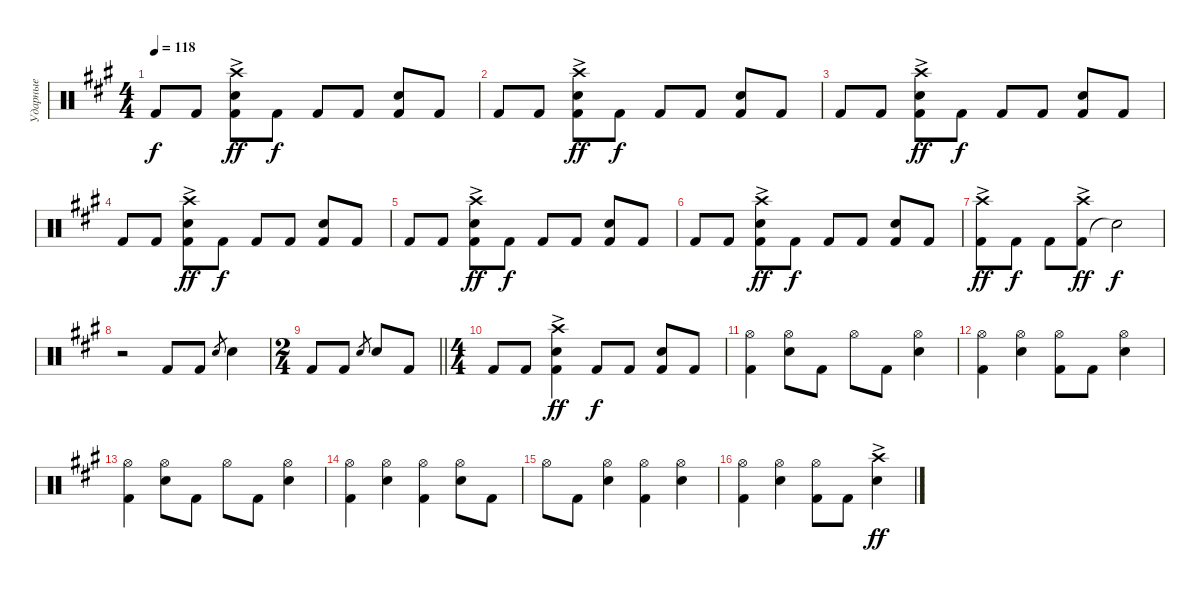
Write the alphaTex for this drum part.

\track ("Ударные" "Ударные") {instrument percussion}
\staff {score}
\articulation defaults
\ts (4 4)
\tempo 118
\clef neutral
\ks a "Kick (hit) 2".8{dy f} "Kick (hit) 2".8
("Kick (hit) 2" "Snare (hit) 2" "Crash high (hit)"{ac}).8{dy ff} "Kick (hit) 2".8{dy f} "Kick (hit) 2".8 "Kick (hit) 2".8 ("Kick (hit) 2" "Snare (hit) 2").8 "Kick (hit) 2".8 |
"Kick (hit) 2".8 "Kick (hit) 2".8 ("Kick (hit) 2" "Snare (hit) 2" "Crash high (hit)"{ac}).8{dy ff} "Kick (hit) 2".8{dy f} "Kick (hit) 2".8 "Kick (hit) 2".8 ("Kick (hit) 2" "Snare (hit) 2").8 "Kick (hit) 2".8 |
"Kick (hit) 2".8 "Kick (hit) 2".8 ("Kick (hit) 2" "Snare (hit) 2" "Crash high (hit)"{ac}).8{dy ff} "Kick (hit) 2".8{dy f} "Kick (hit) 2".8 "Kick (hit) 2".8 ("Kick (hit) 2" "Snare (hit) 2").8 "Kick (hit) 2".8 |
"Kick (hit) 2".8 "Kick (hit) 2".8 ("Kick (hit) 2" "Snare (hit) 2" "Crash high (hit)"{ac}).8{dy ff} "Kick (hit) 2".8{dy f} "Kick (hit) 2".8 "Kick (hit) 2".8 ("Kick (hit) 2" "Snare (hit) 2").8 "Kick (hit) 2".8 |
"Kick (hit) 2".8 "Kick (hit) 2".8 ("Kick (hit) 2" "Snare (hit) 2" "Crash high (hit)"{ac}).8{dy ff} "Kick (hit) 2".8{dy f} "Kick (hit) 2".8 "Kick (hit) 2".8 ("Kick (hit) 2" "Snare (hit) 2").8 "Kick (hit) 2".8 |
"Kick (hit) 2".8 "Kick (hit) 2".8 ("Kick (hit) 2" "Snare (hit) 2" "Crash high (hit)"{ac}).8{dy ff} "Kick (hit) 2".8{dy f} "Kick (hit) 2".8 "Kick (hit) 2".8 ("Kick (hit) 2" "Snare (hit) 2").8 "Kick (hit) 2".8 |
("Kick (hit) 2" "Crash high (hit)"{ac}).8{dy ff} "Kick (hit) 2".8{dy f} "Kick (hit) 2".8 ("Kick (hit) 2" "Crash high (hit)"{ac}).8{dy ff} "Snare (hit)"{t}.2{dy f} |
r.2 "Kick (hit) 2".8 "Kick (hit) 2".8 "Snare (hit) 2".8{gr} "Snare (hit) 2".4 |
\ts (2 4)
\barLineRight lightlight "Kick (hit) 2".8 "Kick (hit) 2".8 "Snare (hit) 2".8{gr} "Snare (hit) 2".8 "Kick (hit) 2".8
|
\ts (4 4)
"Kick (hit) 2".8 "Kick (hit) 2".8 ("Kick (hit) 2" "Snare (hit) 2" "Crash high (hit)"{ac}).4{dy ff} "Kick (hit) 2".8{dy f} "Kick (hit) 2".8 ("Kick (hit) 2" "Snare (hit) 2").8 "Kick (hit) 2".8 |
("Kick (hit) 2" "Hi-Hat (open)").4 ("Snare (hit) 2" "Hi-Hat (open)").8 "Kick (hit) 2".8 "Hi-Hat (open)".8 "Kick (hit) 2".8 ("Snare (hit) 2" "Hi-Hat (open)").4 |
("Kick (hit) 2" "Hi-Hat (open)").4 ("Snare (hit) 2" "Hi-Hat (open)").4 ("Kick (hit) 2" "Hi-Hat (open)").8 "Kick (hit) 2".8 ("Snare (hit) 2" "Hi-Hat (open)").4 |
("Kick (hit) 2" "Hi-Hat (open)").4 ("Snare (hit) 2" "Hi-Hat (open)").8 "Kick (hit) 2".8 "Hi-Hat (open)".8 "Kick (hit) 2".8 ("Snare (hit) 2" "Hi-Hat (open)").4 |
("Kick (hit) 2" "Hi-Hat (open)").4 ("Snare (hit) 2" "Hi-Hat (open)").4 ("Kick (hit) 2" "Hi-Hat (open)").4 ("Snare (hit) 2" "Hi-Hat (open)").8 "Kick (hit) 2".8 |
"Hi-Hat (open)".8 "Kick (hit) 2".8 ("Snare (hit) 2" "Hi-Hat (open)").4 ("Kick (hit) 2" "Hi-Hat (open)").4 ("Snare (hit) 2" "Hi-Hat (open)").4 |
("Kick (hit) 2" "Hi-Hat (open)").4 ("Snare (hit) 2" "Hi-Hat (open)").4 ("Kick (hit) 2" "Hi-Hat (open)").8 "Kick (hit) 2".8 ("Snare (hit) 2" "Crash high (hit)"{ac}).4{dy ff}
